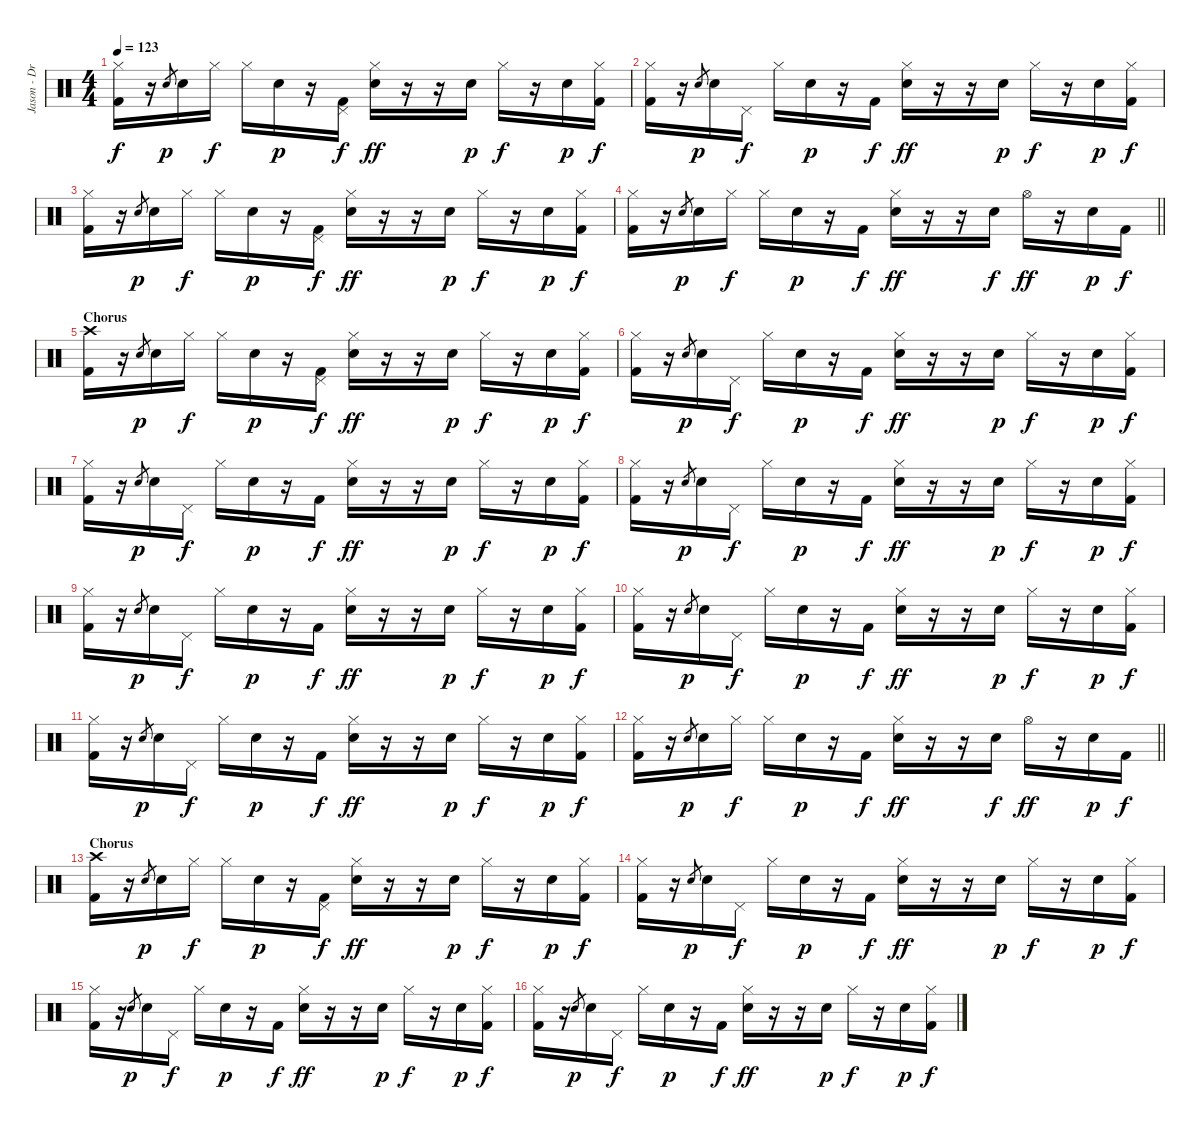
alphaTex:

\track ("Jason - Drums" "Jason - Dr") {instrument percussion}
\staff {score}
\articulation defaults
\ts (4 4)
\tempo 123
\clef neutral
\ks c
("Hi-Hat (closed)" "Kick (hit) 2").16{dy f} r.16 "Snare (hit) 2".8{gr dy p} "Snare (hit) 2".16 "Hi-Hat (closed)".16{dy f} "Hi-Hat (closed)".16 "Snare (hit) 2".16{dy p} r.16 ("Pedal Hi-Hat (hit)" "Kick (hit) 2").16{dy f} ("Hi-Hat (closed)" "Electric Snare (hit)").16{dy ff} r.16 r.16 "Snare (hit) 2".16{dy p} "Hi-Hat (closed)".16{dy f} r.16 "Snare (hit) 2".16{dy p} ("Hi-Hat (closed)" "Kick (hit) 2").16{dy f} |
("Hi-Hat (closed)" "Kick (hit) 2").16 r.16 "Snare (hit) 2".8{gr dy p} "Snare (hit) 2".16 "Pedal Hi-Hat (hit)".16{dy f} "Hi-Hat (closed)".16 "Snare (hit) 2".16{dy p} r.16 "Kick (hit) 2".16{dy f} ("Hi-Hat (closed)" "Electric Snare (hit)").16{dy ff} r.16 r.16 "Snare (hit) 2".16{dy p} "Hi-Hat (closed)".16{dy f} r.16 "Snare (hit) 2".16{dy p} ("Hi-Hat (closed)" "Kick (hit) 2").16{dy f} |
("Hi-Hat (closed)" "Kick (hit) 2").16 r.16 "Snare (hit) 2".8{gr dy p} "Snare (hit) 2".16 "Hi-Hat (closed)".16{dy f} "Hi-Hat (closed)".16 "Snare (hit) 2".16{dy p} r.16 ("Pedal Hi-Hat (hit)" "Kick (hit) 2").16{dy f} ("Hi-Hat (closed)" "Electric Snare (hit)").16{dy ff} r.16 r.16 "Snare (hit) 2".16{dy p} "Hi-Hat (closed)".16{dy f} r.16 "Snare (hit) 2".16{dy p} ("Hi-Hat (closed)" "Kick (hit) 2").16{dy f} |
\barLineRight lightlight
("Hi-Hat (closed)" "Kick (hit) 2").16 r.16 "Snare (hit) 2".8{gr dy p} "Snare (hit) 2".16 "Hi-Hat (closed)".16{dy f} "Hi-Hat (closed)".16 "Snare (hit) 2".16{dy p} r.16 "Kick (hit) 2".16{dy f} ("Hi-Hat (closed)" "Electric Snare (hit)").16{dy ff} r.16 r.16 "Electric Snare (hit)".16{dy f} "Hi-Hat (open)".16{dy ff} r.16 "Snare (hit) 2".16{dy p} "Kick (hit) 2".16{dy f} |
\section ("" "Chorus")
("Crash high (hit)" "Kick (hit) 2").16 r.16 "Snare (hit) 2".8{gr dy p} "Snare (hit) 2".16 "Hi-Hat (closed)".16{dy f} "Hi-Hat (closed)".16 "Snare (hit) 2".16{dy p} r.16 ("Pedal Hi-Hat (hit)" "Kick (hit) 2").16{dy f} ("Hi-Hat (closed)" "Electric Snare (hit)").16{dy ff} r.16 r.16 "Snare (hit) 2".16{dy p} "Hi-Hat (closed)".16{dy f} r.16 "Snare (hit) 2".16{dy p} ("Hi-Hat (closed)" "Kick (hit) 2").16{dy f} |
("Hi-Hat (closed)" "Kick (hit) 2").16 r.16 "Snare (hit) 2".8{gr dy p} "Snare (hit) 2".16 "Pedal Hi-Hat (hit)".16{dy f} "Hi-Hat (closed)".16 "Snare (hit) 2".16{dy p} r.16 "Kick (hit) 2".16{dy f} ("Hi-Hat (closed)" "Electric Snare (hit)").16{dy ff} r.16 r.16 "Snare (hit) 2".16{dy p} "Hi-Hat (closed)".16{dy f} r.16 "Snare (hit) 2".16{dy p} ("Hi-Hat (closed)" "Kick (hit) 2").16{dy f} |
("Hi-Hat (closed)" "Kick (hit) 2").16 r.16 "Snare (hit) 2".8{gr dy p} "Snare (hit) 2".16 "Pedal Hi-Hat (hit)".16{dy f} "Hi-Hat (closed)".16 "Snare (hit) 2".16{dy p} r.16 "Kick (hit) 2".16{dy f} ("Hi-Hat (closed)" "Electric Snare (hit)").16{dy ff} r.16 r.16 "Snare (hit) 2".16{dy p} "Hi-Hat (closed)".16{dy f} r.16 "Snare (hit) 2".16{dy p} ("Hi-Hat (closed)" "Kick (hit) 2").16{dy f} |
("Hi-Hat (closed)" "Kick (hit) 2").16 r.16 "Snare (hit) 2".8{gr dy p} "Snare (hit) 2".16 "Pedal Hi-Hat (hit)".16{dy f} "Hi-Hat (closed)".16 "Snare (hit) 2".16{dy p} r.16 "Kick (hit) 2".16{dy f} ("Hi-Hat (closed)" "Electric Snare (hit)").16{dy ff} r.16 r.16 "Snare (hit) 2".16{dy p} "Hi-Hat (closed)".16{dy f} r.16 "Snare (hit) 2".16{dy p} ("Hi-Hat (closed)" "Kick (hit) 2").16{dy f} |
("Hi-Hat (closed)" "Kick (hit) 2").16 r.16 "Snare (hit) 2".8{gr dy p} "Snare (hit) 2".16 "Pedal Hi-Hat (hit)".16{dy f} "Hi-Hat (closed)".16 "Snare (hit) 2".16{dy p} r.16 "Kick (hit) 2".16{dy f} ("Hi-Hat (closed)" "Electric Snare (hit)").16{dy ff} r.16 r.16 "Snare (hit) 2".16{dy p} "Hi-Hat (closed)".16{dy f} r.16 "Snare (hit) 2".16{dy p} ("Hi-Hat (closed)" "Kick (hit) 2").16{dy f} |
("Hi-Hat (closed)" "Kick (hit) 2").16 r.16 "Snare (hit) 2".8{gr dy p} "Snare (hit) 2".16 "Pedal Hi-Hat (hit)".16{dy f} "Hi-Hat (closed)".16 "Snare (hit) 2".16{dy p} r.16 "Kick (hit) 2".16{dy f} ("Hi-Hat (closed)" "Electric Snare (hit)").16{dy ff} r.16 r.16 "Snare (hit) 2".16{dy p} "Hi-Hat (closed)".16{dy f} r.16 "Snare (hit) 2".16{dy p} ("Hi-Hat (closed)" "Kick (hit) 2").16{dy f} |
("Hi-Hat (closed)" "Kick (hit) 2").16 r.16 "Snare (hit) 2".8{gr dy p} "Snare (hit) 2".16 "Pedal Hi-Hat (hit)".16{dy f} "Hi-Hat (closed)".16 "Snare (hit) 2".16{dy p} r.16 "Kick (hit) 2".16{dy f} ("Hi-Hat (closed)" "Electric Snare (hit)").16{dy ff} r.16 r.16 "Snare (hit) 2".16{dy p} "Hi-Hat (closed)".16{dy f} r.16 "Snare (hit) 2".16{dy p} ("Hi-Hat (closed)" "Kick (hit) 2").16{dy f} |
\barLineRight lightlight
("Hi-Hat (closed)" "Kick (hit) 2").16 r.16 "Snare (hit) 2".8{gr dy p} "Snare (hit) 2".16 "Hi-Hat (closed)".16{dy f} "Hi-Hat (closed)".16 "Snare (hit) 2".16{dy p} r.16 "Kick (hit) 2".16{dy f} ("Hi-Hat (closed)" "Electric Snare (hit)").16{dy ff} r.16 r.16 "Electric Snare (hit)".16{dy f} "Hi-Hat (open)".16{dy ff} r.16 "Snare (hit) 2".16{dy p} "Kick (hit) 2".16{dy f} |
\section ("" "Chorus")
("Crash high (hit)" "Kick (hit) 2").16 r.16 "Snare (hit) 2".8{gr dy p} "Snare (hit) 2".16 "Hi-Hat (closed)".16{dy f} "Hi-Hat (closed)".16 "Snare (hit) 2".16{dy p} r.16 ("Pedal Hi-Hat (hit)" "Kick (hit) 2").16{dy f} ("Hi-Hat (closed)" "Electric Snare (hit)").16{dy ff} r.16 r.16 "Snare (hit) 2".16{dy p} "Hi-Hat (closed)".16{dy f} r.16 "Snare (hit) 2".16{dy p} ("Hi-Hat (closed)" "Kick (hit) 2").16{dy f} |
("Hi-Hat (closed)" "Kick (hit) 2").16 r.16 "Snare (hit) 2".8{gr dy p} "Snare (hit) 2".16 "Pedal Hi-Hat (hit)".16{dy f} "Hi-Hat (closed)".16 "Snare (hit) 2".16{dy p} r.16 "Kick (hit) 2".16{dy f} ("Hi-Hat (closed)" "Electric Snare (hit)").16{dy ff} r.16 r.16 "Snare (hit) 2".16{dy p} "Hi-Hat (closed)".16{dy f} r.16 "Snare (hit) 2".16{dy p} ("Hi-Hat (closed)" "Kick (hit) 2").16{dy f} |
("Hi-Hat (closed)" "Kick (hit) 2").16 r.16 "Snare (hit) 2".8{gr dy p} "Snare (hit) 2".16 "Pedal Hi-Hat (hit)".16{dy f} "Hi-Hat (closed)".16 "Snare (hit) 2".16{dy p} r.16 "Kick (hit) 2".16{dy f} ("Hi-Hat (closed)" "Electric Snare (hit)").16{dy ff} r.16 r.16 "Snare (hit) 2".16{dy p} "Hi-Hat (closed)".16{dy f} r.16 "Snare (hit) 2".16{dy p} ("Hi-Hat (closed)" "Kick (hit) 2").16{dy f} |
("Hi-Hat (closed)" "Kick (hit) 2").16 r.16 "Snare (hit) 2".8{gr dy p} "Snare (hit) 2".16 "Pedal Hi-Hat (hit)".16{dy f} "Hi-Hat (closed)".16 "Snare (hit) 2".16{dy p} r.16 "Kick (hit) 2".16{dy f} ("Hi-Hat (closed)" "Electric Snare (hit)").16{dy ff} r.16 r.16 "Snare (hit) 2".16{dy p} "Hi-Hat (closed)".16{dy f} r.16 "Snare (hit) 2".16{dy p} ("Hi-Hat (closed)" "Kick (hit) 2").16{dy f}
